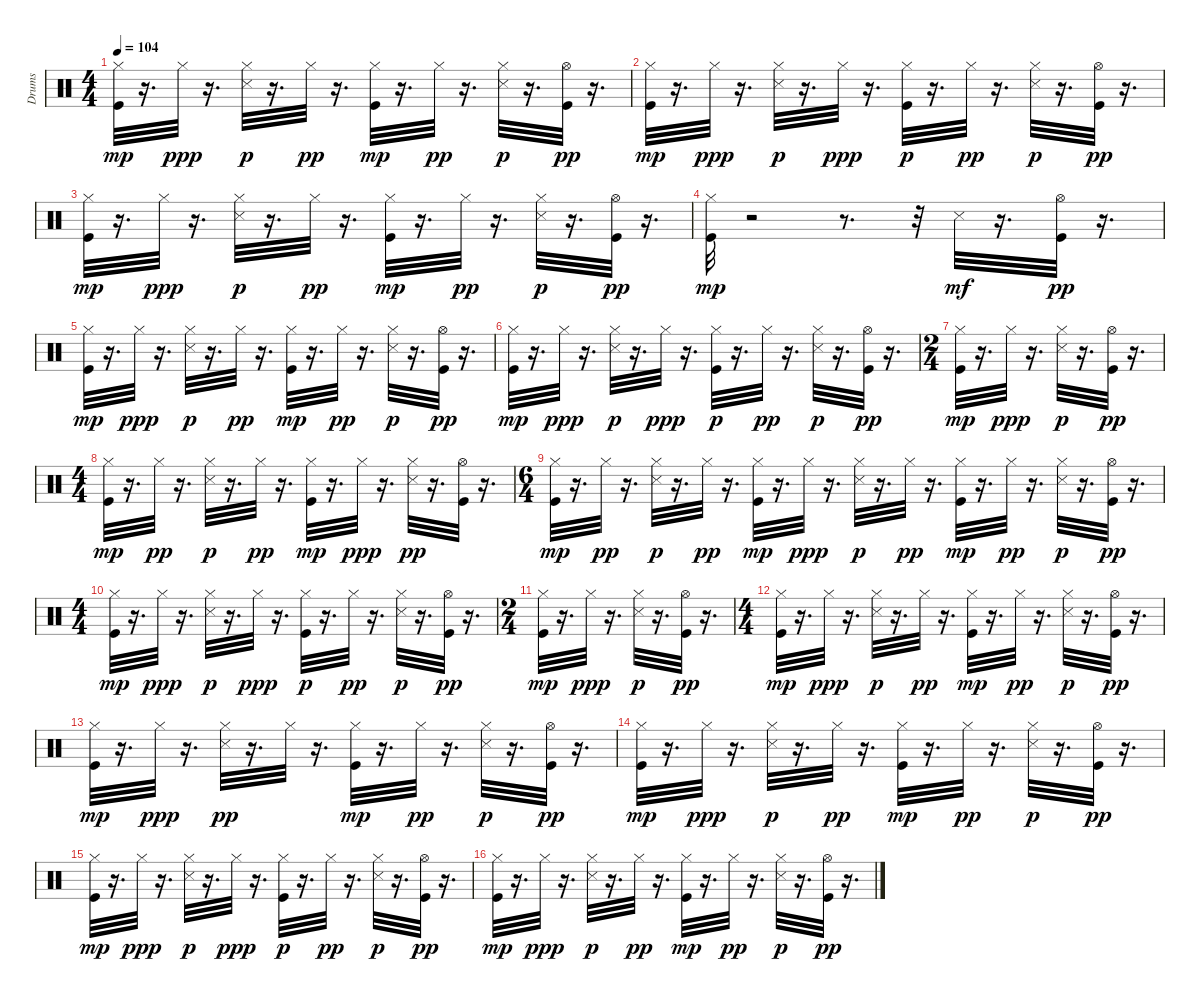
\track ("Drums" "Drums") {instrument percussion}
\staff {score}
\articulation defaults
\ts (4 4)
\tempo 104
\clef neutral
\ks c
("Kick (hit)" "Hi-Hat (closed)").32{dy mp} r.16{d} "Hi-Hat (closed)".32{dy ppp} r.16{d} ("Snare (side stick) 3" "Hi-Hat (closed)").32{dy p} r.16{d} "Hi-Hat (closed)".32{dy pp} r.16{d} ("Kick (hit)" "Hi-Hat (closed)").32{dy mp} r.16{d} "Hi-Hat (closed)".32{dy pp} r.16{d} ("Snare (side stick) 3" "Hi-Hat (closed)").32{dy p} r.16{d} ("Kick (hit)" "Hi-Hat (open)").32{dy pp} r.16{d} |
("Kick (hit)" "Hi-Hat (closed)").32{dy mp} r.16{d} "Hi-Hat (closed)".32{dy ppp} r.16{d} ("Snare (side stick) 3" "Hi-Hat (closed)").32{dy p} r.16{d} "Hi-Hat (closed)".32{dy ppp} r.16{d} ("Kick (hit)" "Hi-Hat (closed)").32{dy p} r.16{d} "Hi-Hat (closed)".32{dy pp} r.16{d} ("Snare (side stick) 3" "Hi-Hat (closed)").32{dy p} r.16{d} ("Kick (hit)" "Hi-Hat (open)").32{dy pp} r.16{d} |
("Kick (hit)" "Hi-Hat (closed)").32{dy mp} r.16{d} "Hi-Hat (closed)".32{dy ppp} r.16{d} ("Snare (side stick) 3" "Hi-Hat (closed)").32{dy p} r.16{d} "Hi-Hat (closed)".32{dy pp} r.16{d} ("Kick (hit)" "Hi-Hat (closed)").32{dy mp} r.16{d} "Hi-Hat (closed)".32{dy pp} r.16{d} ("Snare (side stick) 3" "Hi-Hat (closed)").32{dy p} r.16{d} ("Kick (hit)" "Hi-Hat (open)").32{dy pp} r.16{d} |
("Kick (hit)" "Hi-Hat (closed)").32{dy mp} r.2 r.8{d} r.32 "Snare (side stick) 3".32{dy mf} r.16{d} ("Kick (hit)" "Hi-Hat (open)").32{dy pp} r.16{d} |
("Kick (hit)" "Hi-Hat (closed)").32{dy mp} r.16{d} "Hi-Hat (closed)".32{dy ppp} r.16{d} ("Snare (side stick) 3" "Hi-Hat (closed)").32{dy p} r.16{d} "Hi-Hat (closed)".32{dy pp} r.16{d} ("Kick (hit)" "Hi-Hat (closed)").32{dy mp} r.16{d} "Hi-Hat (closed)".32{dy pp} r.16{d} ("Snare (side stick) 3" "Hi-Hat (closed)").32{dy p} r.16{d} ("Kick (hit)" "Hi-Hat (open)").32{dy pp} r.16{d} |
("Kick (hit)" "Hi-Hat (closed)").32{dy mp} r.16{d} "Hi-Hat (closed)".32{dy ppp} r.16{d} ("Snare (side stick) 3" "Hi-Hat (closed)").32{dy p} r.16{d} "Hi-Hat (closed)".32{dy ppp} r.16{d} ("Kick (hit)" "Hi-Hat (closed)").32{dy p} r.16{d} "Hi-Hat (closed)".32{dy pp} r.16{d} ("Snare (side stick) 3" "Hi-Hat (closed)").32{dy p} r.16{d} ("Kick (hit)" "Hi-Hat (open)").32{dy pp} r.16{d} |
\ts (2 4)
("Kick (hit)" "Hi-Hat (closed)").32{dy mp} r.16{d} "Hi-Hat (closed)".32{dy ppp} r.16{d} ("Snare (side stick) 3" "Hi-Hat (closed)").32{dy p} r.16{d} ("Kick (hit)" "Hi-Hat (open)").32{dy pp} r.16{d} |
\ts (4 4)
("Kick (hit)" "Hi-Hat (closed)").32{dy mp} r.16{d} "Hi-Hat (closed)".32{dy pp} r.16{d} ("Snare (side stick) 3" "Hi-Hat (closed)").32{dy p} r.16{d} "Hi-Hat (closed)".32{dy pp} r.16{d} ("Kick (hit)" "Hi-Hat (closed)").32{dy mp} r.16{d} "Hi-Hat (closed)".32{dy ppp} r.16{d} ("Snare (side stick) 3" "Hi-Hat (closed)").32{dy pp} r.16{d} ("Kick (hit)" "Hi-Hat (open)").32 r.16{d} |
\ts (6 4)
("Kick (hit)" "Hi-Hat (closed)").32{dy mp} r.16{d} "Hi-Hat (closed)".32{dy pp} r.16{d} ("Snare (side stick) 3" "Hi-Hat (closed)").32{dy p} r.16{d} "Hi-Hat (closed)".32{dy pp} r.16{d} ("Kick (hit)" "Hi-Hat (closed)").32{dy mp} r.16{d} "Hi-Hat (closed)".32{dy ppp} r.16{d} ("Snare (side stick) 3" "Hi-Hat (closed)").32{dy p} r.16{d} "Hi-Hat (closed)".32{dy pp} r.16{d} ("Kick (hit)" "Hi-Hat (closed)").32{dy mp} r.16{d} "Hi-Hat (closed)".32{dy pp} r.16{d} ("Snare (side stick) 3" "Hi-Hat (closed)").32{dy p} r.16{d} ("Kick (hit)" "Hi-Hat (open)").32{dy pp} r.16{d} |
\ts (4 4)
("Kick (hit)" "Hi-Hat (closed)").32{dy mp} r.16{d} "Hi-Hat (closed)".32{dy ppp} r.16{d} ("Snare (side stick) 3" "Hi-Hat (closed)").32{dy p} r.16{d} "Hi-Hat (closed)".32{dy ppp} r.16{d} ("Kick (hit)" "Hi-Hat (closed)").32{dy p} r.16{d} "Hi-Hat (closed)".32{dy pp} r.16{d} ("Snare (side stick) 3" "Hi-Hat (closed)").32{dy p} r.16{d} ("Kick (hit)" "Hi-Hat (open)").32{dy pp} r.16{d} |
\ts (2 4)
("Kick (hit)" "Hi-Hat (closed)").32{dy mp} r.16{d} "Hi-Hat (closed)".32{dy ppp} r.16{d} ("Snare (side stick) 3" "Hi-Hat (closed)").32{dy p} r.16{d} ("Kick (hit)" "Hi-Hat (open)").32{dy pp} r.16{d} |
\ts (4 4)
("Kick (hit)" "Hi-Hat (closed)").32{dy mp} r.16{d} "Hi-Hat (closed)".32{dy ppp} r.16{d} ("Snare (side stick) 3" "Hi-Hat (closed)").32{dy p} r.16{d} "Hi-Hat (closed)".32{dy pp} r.16{d} ("Kick (hit)" "Hi-Hat (closed)").32{dy mp} r.16{d} "Hi-Hat (closed)".32{dy pp} r.16{d} ("Snare (side stick) 3" "Hi-Hat (closed)").32{dy p} r.16{d} ("Kick (hit)" "Hi-Hat (open)").32{dy pp} r.16{d} |
("Kick (hit)" "Hi-Hat (closed)").32{dy mp} r.16{d} "Hi-Hat (closed)".32{dy ppp} r.16{d} ("Snare (side stick) 3" "Hi-Hat (closed)").32{dy pp} r.16{d} "Hi-Hat (closed)".32 r.16{d} ("Kick (hit)" "Hi-Hat (closed)").32{dy mp} r.16{d} "Hi-Hat (closed)".32{dy pp} r.16{d} ("Snare (side stick) 3" "Hi-Hat (closed)").32{dy p} r.16{d} ("Kick (hit)" "Hi-Hat (open)").32{dy pp} r.16{d} |
("Kick (hit)" "Hi-Hat (closed)").32{dy mp} r.16{d} "Hi-Hat (closed)".32{dy ppp} r.16{d} ("Snare (side stick) 3" "Hi-Hat (closed)").32{dy p} r.16{d} "Hi-Hat (closed)".32{dy pp} r.16{d} ("Kick (hit)" "Hi-Hat (closed)").32{dy mp} r.16{d} "Hi-Hat (closed)".32{dy pp} r.16{d} ("Snare (side stick) 3" "Hi-Hat (closed)").32{dy p} r.16{d} ("Kick (hit)" "Hi-Hat (open)").32{dy pp} r.16{d} |
("Kick (hit)" "Hi-Hat (closed)").32{dy mp} r.16{d} "Hi-Hat (closed)".32{dy ppp} r.16{d} ("Snare (side stick) 3" "Hi-Hat (closed)").32{dy p} r.16{d} "Hi-Hat (closed)".32{dy ppp} r.16{d} ("Kick (hit)" "Hi-Hat (closed)").32{dy p} r.16{d} "Hi-Hat (closed)".32{dy pp} r.16{d} ("Snare (side stick) 3" "Hi-Hat (closed)").32{dy p} r.16{d} ("Kick (hit)" "Hi-Hat (open)").32{dy pp} r.16{d} |
("Kick (hit)" "Hi-Hat (closed)").32{dy mp} r.16{d} "Hi-Hat (closed)".32{dy ppp} r.16{d} ("Snare (side stick) 3" "Hi-Hat (closed)").32{dy p} r.16{d} "Hi-Hat (closed)".32{dy pp} r.16{d} ("Kick (hit)" "Hi-Hat (closed)").32{dy mp} r.16{d} "Hi-Hat (closed)".32{dy pp} r.16{d} ("Snare (side stick) 3" "Hi-Hat (closed)").32{dy p} r.16{d} ("Kick (hit)" "Hi-Hat (open)").32{dy pp} r.16{d}
